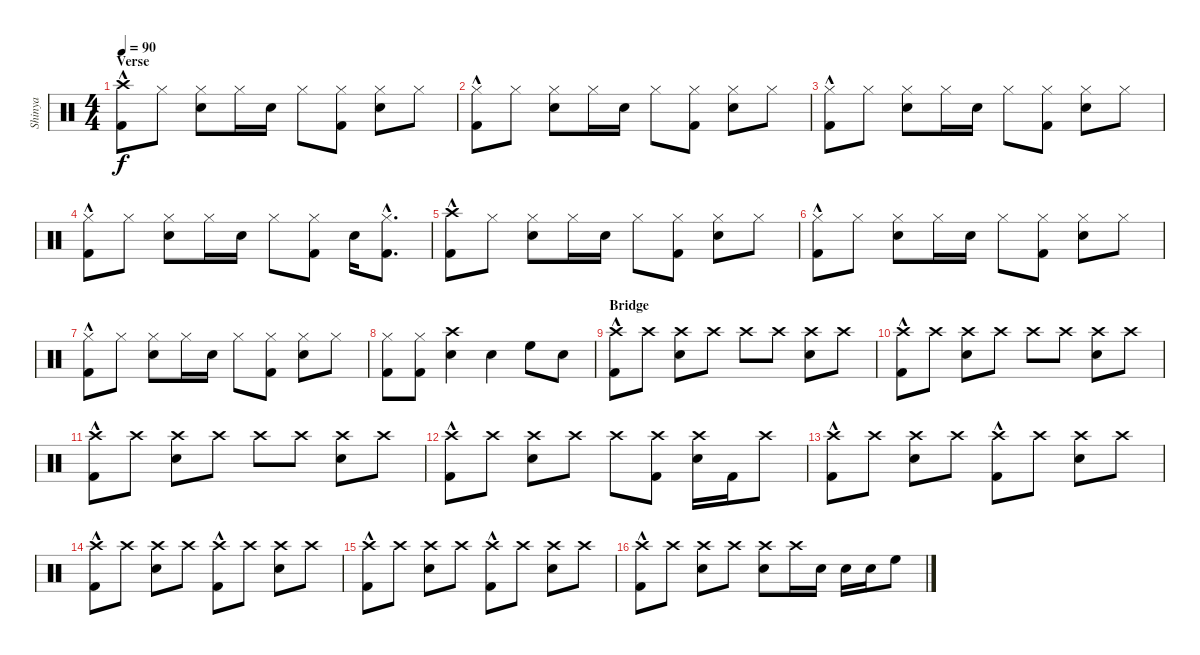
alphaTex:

\track ("Shinya" "Shinya") {instrument percussion}
\staff {score}
\articulation defaults
\ts (4 4)
\section ("" "Verse")
\tempo 90
\clef neutral
\ks c
("Kick (hit) 2"{hac} "Crash high (hit)").8{dy f} "Hi-Hat (closed)".8 ("Snare (hit) 2" "Hi-Hat (closed)").8 "Hi-Hat (closed)".16 "Snare (hit) 2".16 "Hi-Hat (closed)".8 ("Kick (hit) 2" "Hi-Hat (closed)").8 ("Snare (hit) 2" "Hi-Hat (closed)").8 "Hi-Hat (closed)".8 |
("Kick (hit) 2"{hac} "Hi-Hat (closed)").8 "Hi-Hat (closed)".8 ("Snare (hit) 2" "Hi-Hat (closed)").8 "Hi-Hat (closed)".16 "Snare (hit) 2".16 "Hi-Hat (closed)".8 ("Kick (hit) 2" "Hi-Hat (closed)").8 ("Snare (hit) 2" "Hi-Hat (closed)").8 "Hi-Hat (closed)".8 |
("Kick (hit) 2"{hac} "Hi-Hat (closed)").8 "Hi-Hat (closed)".8 ("Snare (hit) 2" "Hi-Hat (closed)").8 "Hi-Hat (closed)".16 "Snare (hit) 2".16 "Hi-Hat (closed)".8 ("Kick (hit) 2" "Hi-Hat (closed)").8 ("Snare (hit) 2" "Hi-Hat (closed)").8 "Hi-Hat (closed)".8 |
("Kick (hit) 2"{hac} "Hi-Hat (closed)").8 "Hi-Hat (closed)".8 ("Snare (hit) 2" "Hi-Hat (closed)").8 "Hi-Hat (closed)".16 "Snare (hit) 2".16 "Hi-Hat (closed)".8 ("Kick (hit) 2" "Hi-Hat (closed)").8 "Snare (hit) 2".16 ("Kick (hit) 2"{hac} "Hi-Hat (closed)"{hac}).8{d} |
("Kick (hit) 2"{hac} "Crash high (hit)").8 "Hi-Hat (closed)".8 ("Snare (hit) 2" "Hi-Hat (closed)").8 "Hi-Hat (closed)".16 "Snare (hit) 2".16 "Hi-Hat (closed)".8 ("Kick (hit) 2" "Hi-Hat (closed)").8 ("Snare (hit) 2" "Hi-Hat (closed)").8 "Hi-Hat (closed)".8 |
("Kick (hit) 2"{hac} "Hi-Hat (closed)").8 "Hi-Hat (closed)".8 ("Snare (hit) 2" "Hi-Hat (closed)").8 "Hi-Hat (closed)".16 "Snare (hit) 2".16 "Hi-Hat (closed)".8 ("Kick (hit) 2" "Hi-Hat (closed)").8 ("Snare (hit) 2" "Hi-Hat (closed)").8 "Hi-Hat (closed)".8 |
("Kick (hit) 2"{hac} "Hi-Hat (closed)").8 "Hi-Hat (closed)".8 ("Snare (hit) 2" "Hi-Hat (closed)").8 "Hi-Hat (closed)".16 "Snare (hit) 2".16 "Hi-Hat (closed)".8 ("Kick (hit) 2" "Hi-Hat (closed)").8 ("Snare (hit) 2" "Hi-Hat (closed)").8 "Hi-Hat (closed)".8 |
("Hi-Hat (closed)" "Kick (hit) 2").8 ("Hi-Hat (closed)" "Kick (hit) 2").8 ("Snare (hit) 2" "Crash high (hit)").4 "Snare (hit) 2".4 "High Floor Tom (hit)".8 "Snare (hit) 2".8 |
\section ("" "Bridge")
("Kick (hit) 2"{hac} "Crash high (hit)").8 "Crash high (hit)".8 ("Snare (hit) 2" "Crash high (hit)").8 "Crash high (hit)".8 "Crash high (hit)".8 "Crash high (hit)".8 ("Snare (hit) 2" "Crash high (hit)").8 "Crash high (hit)".8 |
("Kick (hit) 2"{hac} "Crash high (hit)").8 "Crash high (hit)".8 ("Snare (hit) 2" "Crash high (hit)").8 "Crash high (hit)".8 "Crash high (hit)".8 "Crash high (hit)".8 ("Snare (hit) 2" "Crash high (hit)").8 "Crash high (hit)".8 |
("Kick (hit) 2"{hac} "Crash high (hit)").8 "Crash high (hit)".8 ("Snare (hit) 2" "Crash high (hit)").8 "Crash high (hit)".8 "Crash high (hit)".8 "Crash high (hit)".8 ("Snare (hit) 2" "Crash high (hit)").8 "Crash high (hit)".8 |
("Kick (hit) 2"{hac} "Crash high (hit)").8 "Crash high (hit)".8 ("Snare (hit) 2" "Crash high (hit)").8 "Crash high (hit)".8 "Crash high (hit)".8 ("Kick (hit) 2" "Crash high (hit)").8 ("Snare (hit) 2" "Crash high (hit)").16 "Kick (hit) 2".16 "Crash high (hit)".8 |
("Kick (hit) 2"{hac} "Crash high (hit)").8 "Crash high (hit)".8 ("Snare (hit) 2" "Crash high (hit)").8 "Crash high (hit)".8 ("Kick (hit) 2"{hac} "Crash high (hit)").8 "Crash high (hit)".8 ("Snare (hit) 2" "Crash high (hit)").8 "Crash high (hit)".8 |
("Kick (hit) 2"{hac} "Crash high (hit)").8 "Crash high (hit)".8 ("Snare (hit) 2" "Crash high (hit)").8 "Crash high (hit)".8 ("Kick (hit) 2"{hac} "Crash high (hit)").8 "Crash high (hit)".8 ("Snare (hit) 2" "Crash high (hit)").8 "Crash high (hit)".8 |
("Kick (hit) 2"{hac} "Crash high (hit)").8 "Crash high (hit)".8 ("Snare (hit) 2" "Crash high (hit)").8 "Crash high (hit)".8 ("Kick (hit) 2"{hac} "Crash high (hit)").8 "Crash high (hit)".8 ("Snare (hit) 2" "Crash high (hit)").8 "Crash high (hit)".8 |
("Kick (hit) 2"{hac} "Crash high (hit)").8 "Crash high (hit)".8 ("Snare (hit) 2" "Crash high (hit)").8 "Crash high (hit)".8 ("Snare (hit) 2" "Crash high (hit)").8 "Crash high (hit)".16 "Snare (hit) 2".16 "Snare (hit) 2".16 "Snare (hit)".16 "High Floor Tom (hit)".8
